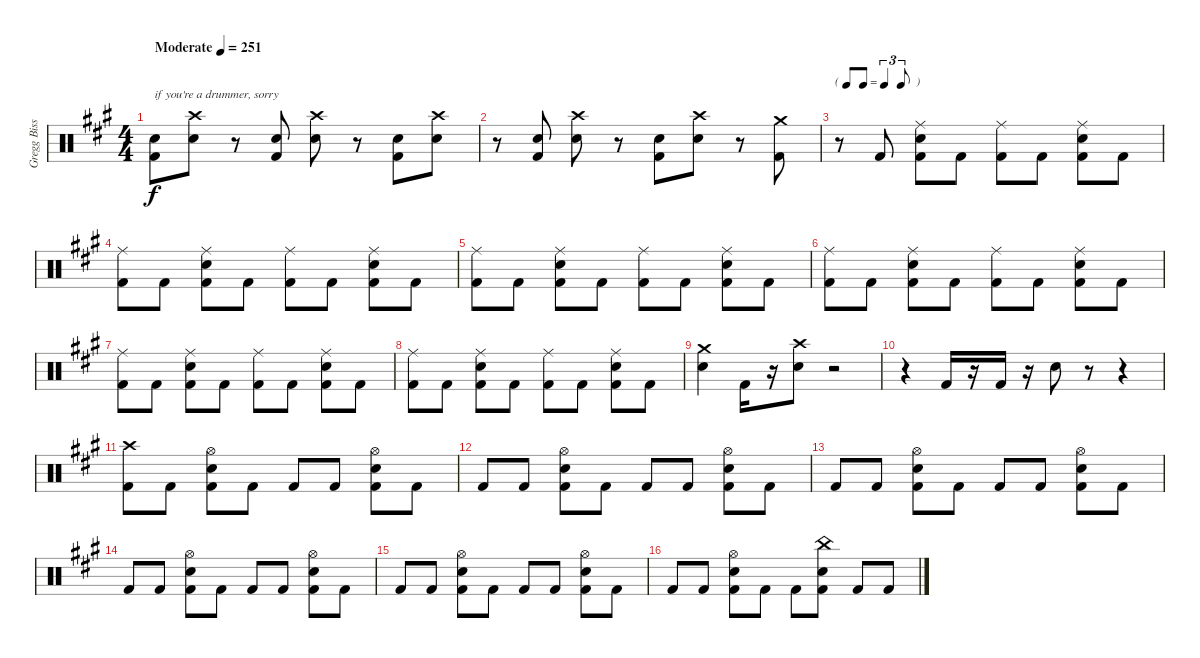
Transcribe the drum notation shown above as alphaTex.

\track ("Gregg Bissonette" "Gregg Biss") {instrument percussion}
\staff {score}
\articulation defaults
\ts (4 4)
\tempo (251 "Moderate")
\clef neutral
\ks f#minor
("Electric Snare (hit)" "Kick (hit) 2").8{txt "if you're a drummer, sorry" dy f} ("Crash high (hit)" "Electric Snare (hit)").8 r.8 ("Electric Snare (hit)" "Kick (hit) 2").8 ("Crash high (hit)" "Electric Snare (hit)").8 r.8 ("Electric Snare (hit)" "Kick (hit) 2").8 ("Crash high (hit)" "Electric Snare (hit)").8 |
r.8 ("Electric Snare (hit)" "Kick (hit) 2").8 ("Crash high (hit)" "Electric Snare (hit)").8 r.8 ("Electric Snare (hit)" "Kick (hit) 2").8 ("Crash high (hit)" "Electric Snare (hit)").8 r.8 ("Crash medium (hit)" "Kick (hit) 2").8 |
\tf triplet8th
r.8 "Kick (hit) 2".8 ("Ride (middle)" "Electric Snare (hit)" "Kick (hit) 2").8 "Kick (hit) 2".8 ("Ride (middle)" "Kick (hit) 2").8 "Kick (hit) 2".8 ("Ride (middle)" "Electric Snare (hit)" "Kick (hit) 2").8 "Kick (hit) 2".8 |
("Ride (middle)" "Kick (hit) 2").8 "Kick (hit) 2".8 ("Ride (middle)" "Electric Snare (hit)" "Kick (hit) 2").8 "Kick (hit) 2".8 ("Ride (middle)" "Kick (hit) 2").8 "Kick (hit) 2".8 ("Ride (middle)" "Electric Snare (hit)" "Kick (hit) 2").8 "Kick (hit) 2".8 |
("Ride (middle)" "Kick (hit) 2").8 "Kick (hit) 2".8 ("Ride (middle)" "Electric Snare (hit)" "Kick (hit) 2").8 "Kick (hit) 2".8 ("Ride (middle)" "Kick (hit) 2").8 "Kick (hit) 2".8 ("Ride (middle)" "Electric Snare (hit)" "Kick (hit) 2").8 "Kick (hit) 2".8 |
("Ride (middle)" "Kick (hit) 2").8 "Kick (hit) 2".8 ("Ride (middle)" "Electric Snare (hit)" "Kick (hit) 2").8 "Kick (hit) 2".8 ("Ride (middle)" "Kick (hit) 2").8 "Kick (hit) 2".8 ("Ride (middle)" "Electric Snare (hit)" "Kick (hit) 2").8 "Kick (hit) 2".8 |
("Ride (middle)" "Kick (hit) 2").8 "Kick (hit) 2".8 ("Ride (middle)" "Electric Snare (hit)" "Kick (hit) 2").8 "Kick (hit) 2".8 ("Ride (middle)" "Kick (hit) 2").8 "Kick (hit) 2".8 ("Ride (middle)" "Electric Snare (hit)" "Kick (hit) 2").8 "Kick (hit) 2".8 |
("Ride (middle)" "Kick (hit) 2").8 "Kick (hit) 2".8 ("Ride (middle)" "Electric Snare (hit)" "Kick (hit) 2").8 "Kick (hit) 2".8 ("Ride (middle)" "Kick (hit) 2").8 "Kick (hit) 2".8 ("Ride (middle)" "Electric Snare (hit)" "Kick (hit) 2").8 "Kick (hit) 2".8 |
("Crash medium (hit)" "Electric Snare (hit)").4 "Kick (hit) 2".16 r.16 ("Crash high (hit)" "Electric Snare (hit)").8 r.2 |
r.4 "Kick (hit) 2".16 r.16 "Kick (hit) 2".16 r.16 "Electric Snare (hit)".8 r.8 r.4 |
("Crash high (hit)" "Kick (hit) 2").8 "Kick (hit) 2".8 ("Hi-Hat (open)" "Electric Snare (hit)" "Kick (hit) 2").8 "Kick (hit) 2".8 "Kick (hit) 2".8 "Kick (hit) 2".8 ("Hi-Hat (open)" "Electric Snare (hit)" "Kick (hit) 2").8 "Kick (hit) 2".8 |
"Kick (hit) 2".8 "Kick (hit) 2".8 ("Hi-Hat (open)" "Electric Snare (hit)" "Kick (hit) 2").8 "Kick (hit) 2".8 "Kick (hit) 2".8 "Kick (hit) 2".8 ("Hi-Hat (open)" "Electric Snare (hit)" "Kick (hit) 2").8 "Kick (hit) 2".8 |
"Kick (hit) 2".8 "Kick (hit) 2".8 ("Hi-Hat (open)" "Electric Snare (hit)" "Kick (hit) 2").8 "Kick (hit) 2".8 "Kick (hit) 2".8 "Kick (hit) 2".8 ("Hi-Hat (open)" "Electric Snare (hit)" "Kick (hit) 2").8 "Kick (hit) 2".8 |
"Kick (hit) 2".8 "Kick (hit) 2".8 ("Hi-Hat (open)" "Electric Snare (hit)" "Kick (hit) 2").8 "Kick (hit) 2".8 "Kick (hit) 2".8 "Kick (hit) 2".8 ("Hi-Hat (open)" "Electric Snare (hit)" "Kick (hit) 2").8 "Kick (hit) 2".8 |
"Kick (hit) 2".8 "Kick (hit) 2".8 ("Hi-Hat (open)" "Electric Snare (hit)" "Kick (hit) 2").8 "Kick (hit) 2".8 "Kick (hit) 2".8 "Kick (hit) 2".8 ("Hi-Hat (open)" "Electric Snare (hit)" "Kick (hit) 2").8 "Kick (hit) 2".8 |
"Kick (hit) 2".8 "Kick (hit) 2".8 ("Hi-Hat (open)" "Electric Snare (hit)" "Kick (hit) 2").8 "Kick (hit) 2".8 "Kick (hit) 2".8 ("China (hit)" "Electric Snare (hit)" "Kick (hit) 2").8 "Kick (hit) 2".8 "Kick (hit) 2".8
